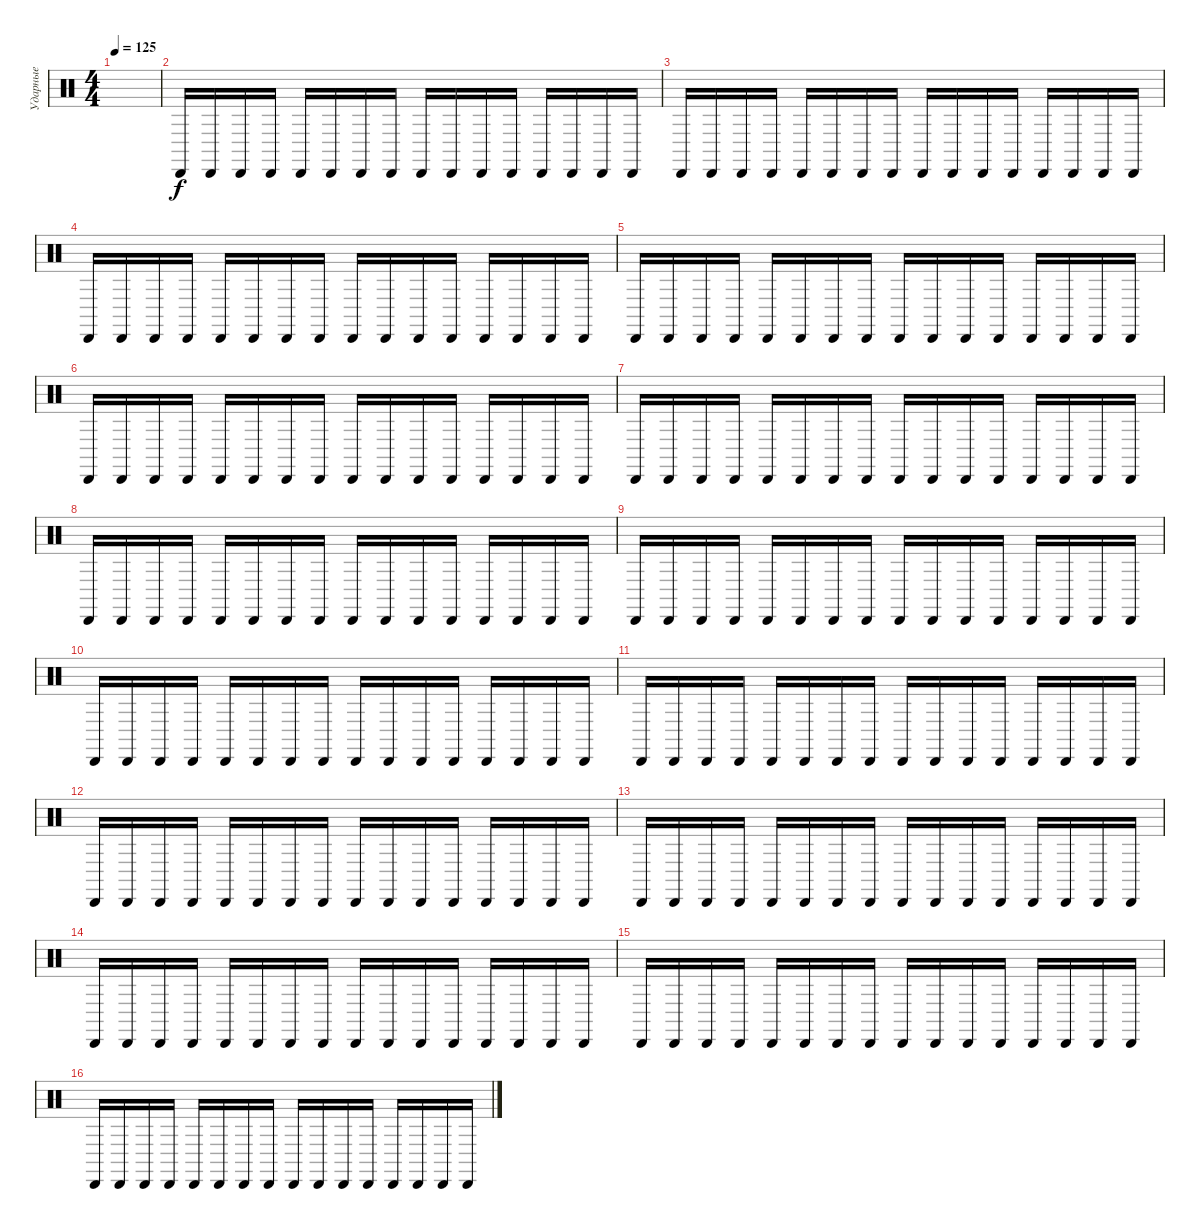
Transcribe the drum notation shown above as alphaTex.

\track ("Ударные" "Ударные") {instrument percussion}
\staff {score}
\articulation defaults
\ts (4 4)
\tempo 125
\clef neutral
\ks c
|
"Cabasa (hit)".16 "Cabasa (hit)".16 "Cabasa (hit)".16 "Cabasa (hit)".16 "Cabasa (hit)".16 "Cabasa (hit)".16 "Cabasa (hit)".16 "Cabasa (hit)".16 "Cabasa (hit)".16 "Cabasa (hit)".16 "Cabasa (hit)".16 "Cabasa (hit)".16 "Cabasa (hit)".16 "Cabasa (hit)".16 "Cabasa (hit)".16 "Cabasa (hit)".16 |
"Cabasa (hit)".16 "Cabasa (hit)".16 "Cabasa (hit)".16 "Cabasa (hit)".16 "Cabasa (hit)".16 "Cabasa (hit)".16 "Cabasa (hit)".16 "Cabasa (hit)".16 "Cabasa (hit)".16 "Cabasa (hit)".16 "Cabasa (hit)".16 "Cabasa (hit)".16 "Cabasa (hit)".16 "Cabasa (hit)".16 "Cabasa (hit)".16 "Cabasa (hit)".16 |
"Cabasa (hit)".16 "Cabasa (hit)".16 "Cabasa (hit)".16 "Cabasa (hit)".16 "Cabasa (hit)".16 "Cabasa (hit)".16 "Cabasa (hit)".16 "Cabasa (hit)".16 "Cabasa (hit)".16 "Cabasa (hit)".16 "Cabasa (hit)".16 "Cabasa (hit)".16 "Cabasa (hit)".16 "Cabasa (hit)".16 "Cabasa (hit)".16 "Cabasa (hit)".16 |
"Cabasa (hit)".16 "Cabasa (hit)".16 "Cabasa (hit)".16 "Cabasa (hit)".16 "Cabasa (hit)".16 "Cabasa (hit)".16 "Cabasa (hit)".16 "Cabasa (hit)".16 "Cabasa (hit)".16 "Cabasa (hit)".16 "Cabasa (hit)".16 "Cabasa (hit)".16 "Cabasa (hit)".16 "Cabasa (hit)".16 "Cabasa (hit)".16 "Cabasa (hit)".16 |
"Cabasa (hit)".16 "Cabasa (hit)".16 "Cabasa (hit)".16 "Cabasa (hit)".16 "Cabasa (hit)".16 "Cabasa (hit)".16 "Cabasa (hit)".16 "Cabasa (hit)".16 "Cabasa (hit)".16 "Cabasa (hit)".16 "Cabasa (hit)".16 "Cabasa (hit)".16 "Cabasa (hit)".16 "Cabasa (hit)".16 "Cabasa (hit)".16 "Cabasa (hit)".16 |
"Cabasa (hit)".16 "Cabasa (hit)".16 "Cabasa (hit)".16 "Cabasa (hit)".16 "Cabasa (hit)".16 "Cabasa (hit)".16 "Cabasa (hit)".16 "Cabasa (hit)".16 "Cabasa (hit)".16 "Cabasa (hit)".16 "Cabasa (hit)".16 "Cabasa (hit)".16 "Cabasa (hit)".16 "Cabasa (hit)".16 "Cabasa (hit)".16 "Cabasa (hit)".16 |
"Cabasa (hit)".16 "Cabasa (hit)".16 "Cabasa (hit)".16 "Cabasa (hit)".16 "Cabasa (hit)".16 "Cabasa (hit)".16 "Cabasa (hit)".16 "Cabasa (hit)".16 "Cabasa (hit)".16 "Cabasa (hit)".16 "Cabasa (hit)".16 "Cabasa (hit)".16 "Cabasa (hit)".16 "Cabasa (hit)".16 "Cabasa (hit)".16 "Cabasa (hit)".16 |
"Cabasa (hit)".16 "Cabasa (hit)".16 "Cabasa (hit)".16 "Cabasa (hit)".16 "Cabasa (hit)".16 "Cabasa (hit)".16 "Cabasa (hit)".16 "Cabasa (hit)".16 "Cabasa (hit)".16 "Cabasa (hit)".16 "Cabasa (hit)".16 "Cabasa (hit)".16 "Cabasa (hit)".16 "Cabasa (hit)".16 "Cabasa (hit)".16 "Cabasa (hit)".16 |
"Cabasa (hit)".16 "Cabasa (hit)".16 "Cabasa (hit)".16 "Cabasa (hit)".16 "Cabasa (hit)".16 "Cabasa (hit)".16 "Cabasa (hit)".16 "Cabasa (hit)".16 "Cabasa (hit)".16 "Cabasa (hit)".16 "Cabasa (hit)".16 "Cabasa (hit)".16 "Cabasa (hit)".16 "Cabasa (hit)".16 "Cabasa (hit)".16 "Cabasa (hit)".16 |
"Cabasa (hit)".16 "Cabasa (hit)".16 "Cabasa (hit)".16 "Cabasa (hit)".16 "Cabasa (hit)".16 "Cabasa (hit)".16 "Cabasa (hit)".16 "Cabasa (hit)".16 "Cabasa (hit)".16 "Cabasa (hit)".16 "Cabasa (hit)".16 "Cabasa (hit)".16 "Cabasa (hit)".16 "Cabasa (hit)".16 "Cabasa (hit)".16 "Cabasa (hit)".16 |
"Cabasa (hit)".16 "Cabasa (hit)".16 "Cabasa (hit)".16 "Cabasa (hit)".16 "Cabasa (hit)".16 "Cabasa (hit)".16 "Cabasa (hit)".16 "Cabasa (hit)".16 "Cabasa (hit)".16 "Cabasa (hit)".16 "Cabasa (hit)".16 "Cabasa (hit)".16 "Cabasa (hit)".16 "Cabasa (hit)".16 "Cabasa (hit)".16 "Cabasa (hit)".16 |
"Cabasa (hit)".16 "Cabasa (hit)".16 "Cabasa (hit)".16 "Cabasa (hit)".16 "Cabasa (hit)".16 "Cabasa (hit)".16 "Cabasa (hit)".16 "Cabasa (hit)".16 "Cabasa (hit)".16 "Cabasa (hit)".16 "Cabasa (hit)".16 "Cabasa (hit)".16 "Cabasa (hit)".16 "Cabasa (hit)".16 "Cabasa (hit)".16 "Cabasa (hit)".16 |
"Cabasa (hit)".16 "Cabasa (hit)".16 "Cabasa (hit)".16 "Cabasa (hit)".16 "Cabasa (hit)".16 "Cabasa (hit)".16 "Cabasa (hit)".16 "Cabasa (hit)".16 "Cabasa (hit)".16 "Cabasa (hit)".16 "Cabasa (hit)".16 "Cabasa (hit)".16 "Cabasa (hit)".16 "Cabasa (hit)".16 "Cabasa (hit)".16 "Cabasa (hit)".16 |
"Cabasa (hit)".16 "Cabasa (hit)".16 "Cabasa (hit)".16 "Cabasa (hit)".16 "Cabasa (hit)".16 "Cabasa (hit)".16 "Cabasa (hit)".16 "Cabasa (hit)".16 "Cabasa (hit)".16 "Cabasa (hit)".16 "Cabasa (hit)".16 "Cabasa (hit)".16 "Cabasa (hit)".16 "Cabasa (hit)".16 "Cabasa (hit)".16 "Cabasa (hit)".16 |
"Cabasa (hit)".16 "Cabasa (hit)".16 "Cabasa (hit)".16 "Cabasa (hit)".16 "Cabasa (hit)".16 "Cabasa (hit)".16 "Cabasa (hit)".16 "Cabasa (hit)".16 "Cabasa (hit)".16 "Cabasa (hit)".16 "Cabasa (hit)".16 "Cabasa (hit)".16 "Cabasa (hit)".16 "Cabasa (hit)".16 "Cabasa (hit)".16 "Cabasa (hit)".16
